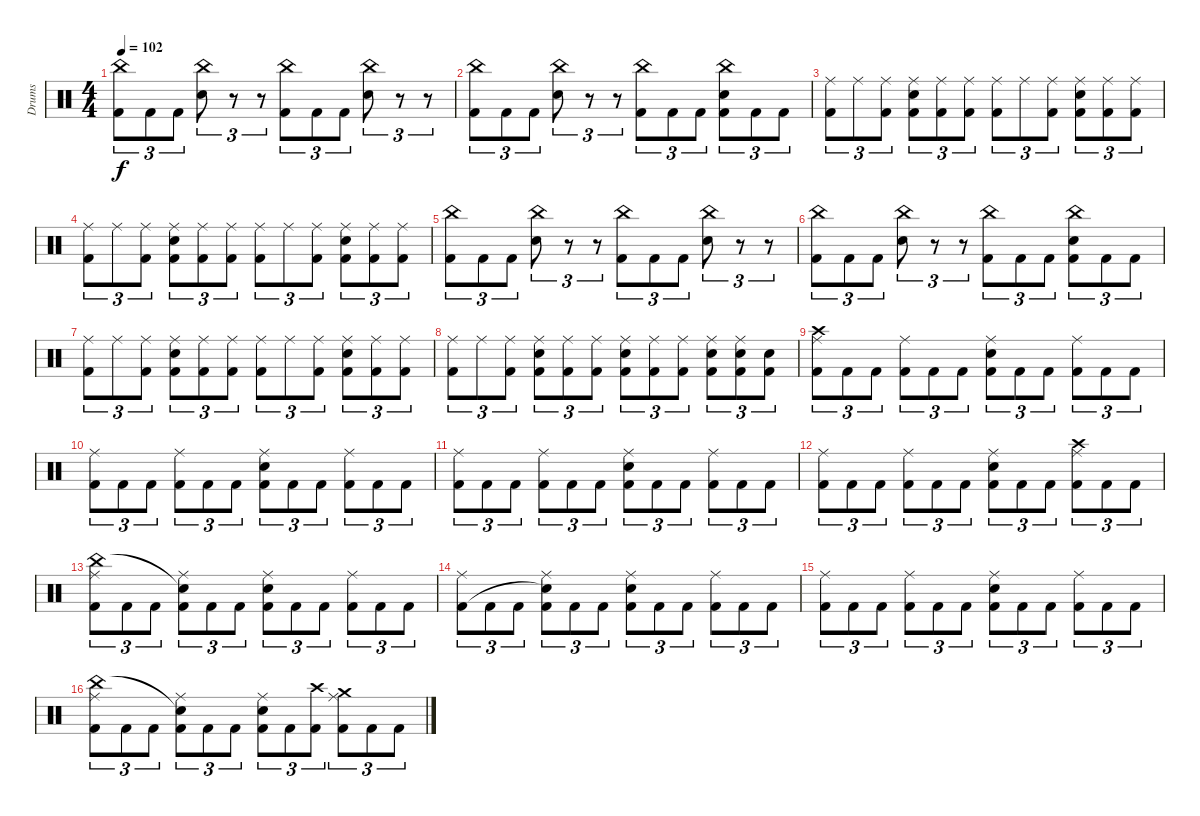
\track ("Drums" "Drums") {instrument percussion}
\staff {score}
\articulation defaults
\ts (4 4)
\tempo 102
\clef neutral
\ks c
("China (hit)" "Kick (hit) 2").8{tu (3 2) dy f} "Kick (hit) 2".8{tu (3 2)} "Kick (hit) 2".8{tu (3 2)} ("China (hit)" "Snare (hit) 2").8{tu (3 2)} r.8{tu (3 2)} r.8{tu (3 2)} ("China (hit)" "Kick (hit) 2").8{tu (3 2)} "Kick (hit) 2".8{tu (3 2)} "Kick (hit) 2".8{tu (3 2)} ("China (hit)" "Snare (hit) 2").8{tu (3 2)} r.8{tu (3 2)} r.8{tu (3 2)} |
("China (hit)" "Kick (hit) 2").8{tu (3 2)} "Kick (hit) 2".8{tu (3 2)} "Kick (hit) 2".8{tu (3 2)} ("China (hit)" "Snare (hit) 2").8{tu (3 2)} r.8{tu (3 2)} r.8{tu (3 2)} ("China (hit)" "Kick (hit) 2").8{tu (3 2)} "Kick (hit) 2".8{tu (3 2)} "Kick (hit) 2".8{tu (3 2)} ("China (hit)" "Snare (hit) 2" "Kick (hit) 2").8{tu (3 2)} "Kick (hit) 2".8{tu (3 2)} "Kick (hit) 2".8{tu (3 2)} |
("Ride (middle)" "Kick (hit) 2").8{tu (3 2)} "Ride (middle)".8{tu (3 2)} ("Ride (middle)" "Kick (hit) 2").8{tu (3 2)} ("Ride (middle)" "Snare (hit) 2" "Kick (hit) 2").8{tu (3 2)} ("Ride (middle)" "Kick (hit) 2").8{tu (3 2)} ("Ride (middle)" "Kick (hit) 2").8{tu (3 2)} ("Ride (middle)" "Kick (hit) 2").8{tu (3 2)} "Ride (middle)".8{tu (3 2)} ("Ride (middle)" "Kick (hit) 2").8{tu (3 2)} ("Ride (middle)" "Snare (hit) 2" "Kick (hit) 2").8{tu (3 2)} ("Ride (middle)" "Kick (hit) 2").8{tu (3 2)} ("Ride (middle)" "Kick (hit) 2").8{tu (3 2)} |
("Ride (middle)" "Kick (hit) 2").8{tu (3 2)} "Ride (middle)".8{tu (3 2)} ("Ride (middle)" "Kick (hit) 2").8{tu (3 2)} ("Ride (middle)" "Snare (hit) 2" "Kick (hit) 2").8{tu (3 2)} ("Ride (middle)" "Kick (hit) 2").8{tu (3 2)} ("Ride (middle)" "Kick (hit) 2").8{tu (3 2)} ("Ride (middle)" "Kick (hit) 2").8{tu (3 2)} "Ride (middle)".8{tu (3 2)} ("Ride (middle)" "Kick (hit) 2").8{tu (3 2)} ("Ride (middle)" "Snare (hit) 2" "Kick (hit) 2").8{tu (3 2)} ("Ride (middle)" "Kick (hit) 2").8{tu (3 2)} ("Ride (middle)" "Kick (hit) 2").8{tu (3 2)} |
("China (hit)" "Kick (hit) 2").8{tu (3 2)} "Kick (hit) 2".8{tu (3 2)} "Kick (hit) 2".8{tu (3 2)} ("China (hit)" "Snare (hit) 2").8{tu (3 2)} r.8{tu (3 2)} r.8{tu (3 2)} ("China (hit)" "Kick (hit) 2").8{tu (3 2)} "Kick (hit) 2".8{tu (3 2)} "Kick (hit) 2".8{tu (3 2)} ("China (hit)" "Snare (hit) 2").8{tu (3 2)} r.8{tu (3 2)} r.8{tu (3 2)} |
("China (hit)" "Kick (hit) 2").8{tu (3 2)} "Kick (hit) 2".8{tu (3 2)} "Kick (hit) 2".8{tu (3 2)} ("China (hit)" "Snare (hit) 2").8{tu (3 2)} r.8{tu (3 2)} r.8{tu (3 2)} ("China (hit)" "Kick (hit) 2").8{tu (3 2)} "Kick (hit) 2".8{tu (3 2)} "Kick (hit) 2".8{tu (3 2)} ("China (hit)" "Snare (hit) 2" "Kick (hit) 2").8{tu (3 2)} "Kick (hit) 2".8{tu (3 2)} "Kick (hit) 2".8{tu (3 2)} |
("Ride (middle)" "Kick (hit) 2").8{tu (3 2)} "Ride (middle)".8{tu (3 2)} ("Ride (middle)" "Kick (hit) 2").8{tu (3 2)} ("Ride (middle)" "Snare (hit) 2" "Kick (hit) 2").8{tu (3 2)} ("Ride (middle)" "Kick (hit) 2").8{tu (3 2)} ("Ride (middle)" "Kick (hit) 2").8{tu (3 2)} ("Ride (middle)" "Kick (hit) 2").8{tu (3 2)} "Ride (middle)".8{tu (3 2)} ("Ride (middle)" "Kick (hit) 2").8{tu (3 2)} ("Ride (middle)" "Snare (hit) 2" "Kick (hit) 2").8{tu (3 2)} ("Ride (middle)" "Kick (hit) 2").8{tu (3 2)} ("Ride (middle)" "Kick (hit) 2").8{tu (3 2)} |
("Ride (middle)" "Kick (hit) 2").8{tu (3 2)} "Ride (middle)".8{tu (3 2)} ("Ride (middle)" "Kick (hit) 2").8{tu (3 2)} ("Ride (middle)" "Snare (hit) 2" "Kick (hit) 2").8{tu (3 2)} ("Ride (middle)" "Kick (hit) 2").8{tu (3 2)} ("Ride (middle)" "Kick (hit) 2").8{tu (3 2)} ("Ride (middle)" "Snare (hit) 2" "Kick (hit) 2").8{tu (3 2)} ("Ride (middle)" "Kick (hit) 2").8{tu (3 2)} ("Ride (middle)" "Kick (hit) 2").8{tu (3 2)} ("Ride (middle)" "Snare (hit) 2" "Kick (hit) 2").8{tu (3 2)} ("Ride (middle)" "Snare (hit) 2" "Kick (hit) 2").8{tu (3 2)} ("Snare (hit) 2" "Kick (hit) 2").8{tu (3 2)} |
("Ride (middle)" "Crash high (hit)" "Kick (hit) 2").8{tu (3 2)} "Kick (hit) 2".8{tu (3 2)} "Kick (hit) 2".8{tu (3 2)} ("Ride (middle)" "Kick (hit) 2").8{tu (3 2)} "Kick (hit) 2".8{tu (3 2)} "Kick (hit) 2".8{tu (3 2)} ("Ride (middle)" "Snare (hit) 2" "Kick (hit) 2").8{tu (3 2)} "Kick (hit) 2".8{tu (3 2)} "Kick (hit) 2".8{tu (3 2)} ("Ride (middle)" "Kick (hit) 2").8{tu (3 2)} "Kick (hit) 2".8{tu (3 2)} "Kick (hit) 2".8{tu (3 2)} |
("Ride (middle)" "Kick (hit) 2").8{tu (3 2)} "Kick (hit) 2".8{tu (3 2)} "Kick (hit) 2".8{tu (3 2)} ("Ride (middle)" "Kick (hit) 2").8{tu (3 2)} "Kick (hit) 2".8{tu (3 2)} "Kick (hit) 2".8{tu (3 2)} ("Ride (middle)" "Snare (hit) 2" "Kick (hit) 2").8{tu (3 2)} "Kick (hit) 2".8{tu (3 2)} "Kick (hit) 2".8{tu (3 2)} ("Ride (middle)" "Kick (hit) 2").8{tu (3 2)} "Kick (hit) 2".8{tu (3 2)} "Kick (hit) 2".8{tu (3 2)} |
("Ride (middle)" "Kick (hit) 2").8{tu (3 2)} "Kick (hit) 2".8{tu (3 2)} "Kick (hit) 2".8{tu (3 2)} ("Ride (middle)" "Kick (hit) 2").8{tu (3 2)} "Kick (hit) 2".8{tu (3 2)} "Kick (hit) 2".8{tu (3 2)} ("Ride (middle)" "Snare (hit) 2" "Kick (hit) 2").8{tu (3 2)} "Kick (hit) 2".8{tu (3 2)} "Kick (hit) 2".8{tu (3 2)} ("Ride (middle)" "Kick (hit) 2").8{tu (3 2)} "Kick (hit) 2".8{tu (3 2)} "Kick (hit) 2".8{tu (3 2)} |
("Ride (middle)" "Kick (hit) 2").8{tu (3 2)} "Kick (hit) 2".8{tu (3 2)} "Kick (hit) 2".8{tu (3 2)} ("Ride (middle)" "Kick (hit) 2").8{tu (3 2)} "Kick (hit) 2".8{tu (3 2)} "Kick (hit) 2".8{tu (3 2)} ("Ride (middle)" "Snare (hit) 2" "Kick (hit) 2").8{tu (3 2)} "Kick (hit) 2".8{tu (3 2)} "Kick (hit) 2".8{tu (3 2)} ("Ride (middle)" "Crash high (hit)" "Kick (hit) 2").8{tu (3 2)} "Kick (hit) 2".8{tu (3 2)} "Kick (hit) 2".8{tu (3 2)} |
("Ride (middle)" "China (hit)" "Kick (hit) 2").8{tu (3 2)} "Kick (hit) 2".8{tu (3 2)} "Kick (hit) 2".8{tu (3 2)} ("Ride (middle)" "Snare (hit)"{t} "Kick (hit) 2").8{tu (3 2)} "Kick (hit) 2".8{tu (3 2)} "Kick (hit) 2".8{tu (3 2)} ("Ride (middle)" "Snare (hit) 2" "Kick (hit) 2").8{tu (3 2)} "Kick (hit) 2".8{tu (3 2)} "Kick (hit) 2".8{tu (3 2)} ("Ride (middle)" "Kick (hit) 2").8{tu (3 2)} "Kick (hit) 2".8{tu (3 2)} "Kick (hit) 2".8{tu (3 2)} |
("Ride (middle)" "Kick (hit) 2").8{tu (3 2)} "Kick (hit) 2".8{tu (3 2)} "Kick (hit) 2".8{tu (3 2)} ("Ride (middle)" "Snare (hit)"{t} "Kick (hit) 2").8{tu (3 2)} "Kick (hit) 2".8{tu (3 2)} "Kick (hit) 2".8{tu (3 2)} ("Ride (middle)" "Snare (hit) 2" "Kick (hit) 2").8{tu (3 2)} "Kick (hit) 2".8{tu (3 2)} "Kick (hit) 2".8{tu (3 2)} ("Ride (middle)" "Kick (hit) 2").8{tu (3 2)} "Kick (hit) 2".8{tu (3 2)} "Kick (hit) 2".8{tu (3 2)} |
("Ride (middle)" "Kick (hit) 2").8{tu (3 2)} "Kick (hit) 2".8{tu (3 2)} "Kick (hit) 2".8{tu (3 2)} ("Ride (middle)" "Kick (hit) 2").8{tu (3 2)} "Kick (hit) 2".8{tu (3 2)} "Kick (hit) 2".8{tu (3 2)} ("Ride (middle)" "Snare (hit) 2" "Kick (hit) 2").8{tu (3 2)} "Kick (hit) 2".8{tu (3 2)} "Kick (hit) 2".8{tu (3 2)} ("Ride (middle)" "Kick (hit) 2").8{tu (3 2)} "Kick (hit) 2".8{tu (3 2)} "Kick (hit) 2".8{tu (3 2)} |
("Ride (middle)" "China (hit)" "Kick (hit) 2").8{tu (3 2)} "Kick (hit) 2".8{tu (3 2)} "Kick (hit) 2".8{tu (3 2)} ("Ride (middle)" "Snare (hit)"{t} "Kick (hit) 2").8{tu (3 2)} "Kick (hit) 2".8{tu (3 2)} "Kick (hit) 2".8{tu (3 2)} ("Ride (middle)" "Snare (hit) 2" "Kick (hit) 2").8{tu (3 2)} "Kick (hit) 2".8{tu (3 2)} ("Crash high (hit)" "Kick (hit) 2").8{tu (3 2)} ("Ride (middle)" "Crash medium (hit)" "Kick (hit) 2").8{tu (3 2)} "Kick (hit) 2".8{tu (3 2)} "Kick (hit) 2".8{tu (3 2)}
